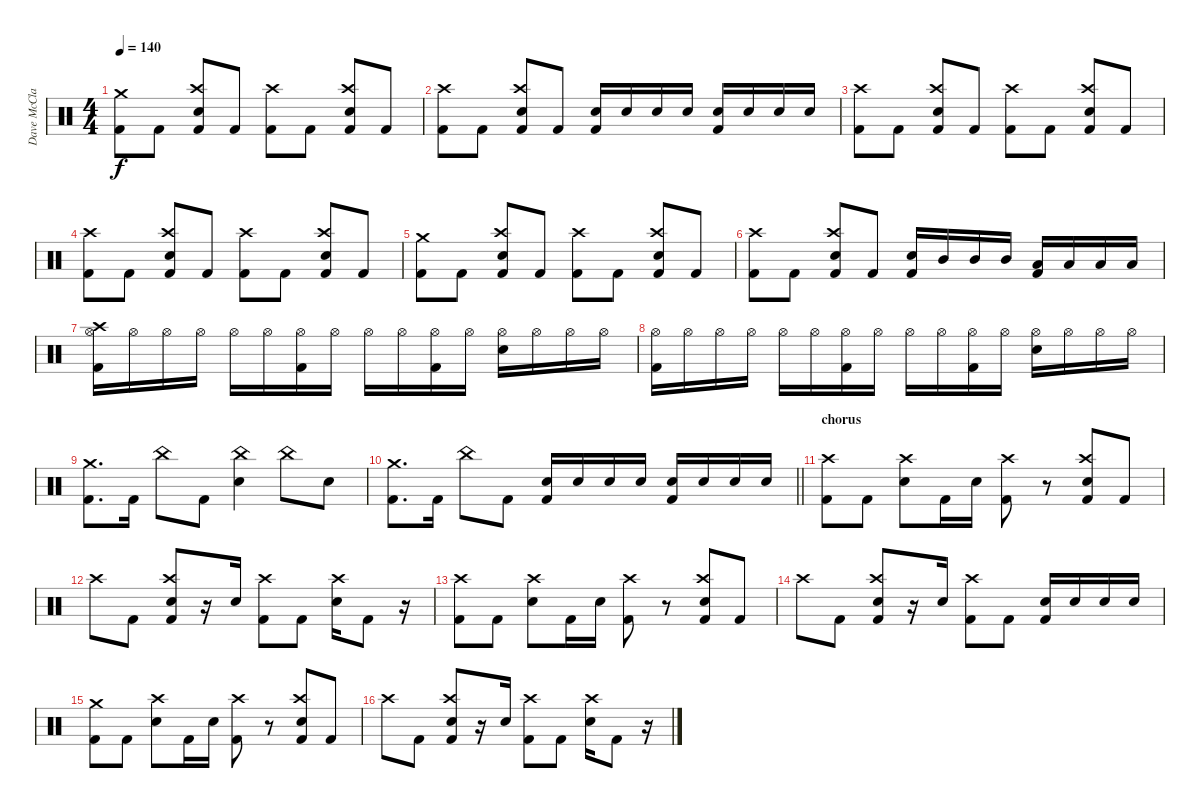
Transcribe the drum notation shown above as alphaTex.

\track ("Dave McClain" "Dave McCla") {solo instrument percussion}
\staff {score}
\articulation defaults
\ts (4 4)
\tempo 140
\clef neutral
\ks c
("Crash medium (hit)" "Kick (hit) 2").8{dy f} "Kick (hit) 2".8 ("Crash high (hit)" "Electric Snare (hit)" "Kick (hit) 2").8 "Kick (hit) 2".8 ("Crash high (hit)" "Kick (hit) 2").8 "Kick (hit) 2".8 ("Crash high (hit)" "Electric Snare (hit)" "Kick (hit) 2").8 "Kick (hit) 2".8 |
("Crash high (hit)" "Kick (hit) 2").8 "Kick (hit) 2".8 ("Crash high (hit)" "Electric Snare (hit)" "Kick (hit) 2").8 "Kick (hit) 2".8 ("Electric Snare (hit)" "Kick (hit) 2").16 "Electric Snare (hit)".16 "Electric Snare (hit)".16 "Electric Snare (hit)".16 ("Electric Snare (hit)" "Kick (hit) 2").16 "Electric Snare (hit)".16 "Electric Snare (hit)".16 "Electric Snare (hit)".16 |
("Crash high (hit)" "Kick (hit) 2").8 "Kick (hit) 2".8 ("Crash high (hit)" "Electric Snare (hit)" "Kick (hit) 2").8 "Kick (hit) 2".8 ("Crash high (hit)" "Kick (hit) 2").8 "Kick (hit) 2".8 ("Crash high (hit)" "Electric Snare (hit)" "Kick (hit) 2").8 "Kick (hit) 2".8 |
("Crash high (hit)" "Kick (hit) 2").8 "Kick (hit) 2".8 ("Crash high (hit)" "Electric Snare (hit)" "Kick (hit) 2").8 "Kick (hit) 2".8 ("Crash high (hit)" "Kick (hit) 2").8 "Kick (hit) 2".8 ("Crash high (hit)" "Electric Snare (hit)" "Kick (hit) 2").8 "Kick (hit) 2".8 |
("Crash medium (hit)" "Kick (hit) 2").8 "Kick (hit) 2".8 ("Crash high (hit)" "Electric Snare (hit)" "Kick (hit) 2").8 "Kick (hit) 2".8 ("Crash high (hit)" "Kick (hit) 2").8 "Kick (hit) 2".8 ("Crash high (hit)" "Electric Snare (hit)" "Kick (hit) 2").8 "Kick (hit) 2".8 |
("Crash high (hit)" "Kick (hit) 2").8 "Kick (hit) 2".8 ("Crash high (hit)" "Electric Snare (hit)" "Kick (hit) 2").8 "Kick (hit) 2".8 ("Electric Snare (hit)" "Kick (hit) 2").16 "Mid Tom (hit)".16 "Mid Tom (hit)".16 "Mid Tom (hit)".16 ("Low Tom (hit)" "Kick (hit) 2").16 "Low Tom (hit)".16 "Low Floor Tom (hit)".16 "Low Floor Tom (hit)".16 |
("Crash high (hit)" "Hi-Hat (open)" "Kick (hit) 2").16 "Hi-Hat (open)".16 "Hi-Hat (open)".16 "Hi-Hat (open)".16 "Hi-Hat (open)".16 "Hi-Hat (open)".16 ("Hi-Hat (open)" "Kick (hit) 2").16 "Hi-Hat (open)".16 "Hi-Hat (open)".16 "Hi-Hat (open)".16 ("Hi-Hat (open)" "Kick (hit) 2").16 "Hi-Hat (open)".16 ("Hi-Hat (open)" "Electric Snare (hit)").16 "Hi-Hat (open)".16 "Hi-Hat (open)".16 "Hi-Hat (open)".16 |
("Hi-Hat (open)" "Kick (hit) 2").16 "Hi-Hat (open)".16 "Hi-Hat (open)".16 "Hi-Hat (open)".16 "Hi-Hat (open)".16 "Hi-Hat (open)".16 ("Hi-Hat (open)" "Kick (hit) 2").16 "Hi-Hat (open)".16 "Hi-Hat (open)".16 "Hi-Hat (open)".16 ("Hi-Hat (open)" "Kick (hit) 2").16 "Hi-Hat (open)".16 ("Hi-Hat (open)" "Electric Snare (hit)").16 "Hi-Hat (open)".16 "Hi-Hat (open)".16 "Hi-Hat (open)".16 |
("Crash medium (hit)" "Kick (hit) 2").8{d} "Kick (hit) 2".16 "China (hit)".8 "Kick (hit) 2".8 ("China (hit)" "Electric Snare (hit)").4 "China (hit)".8 "Electric Snare (hit)".8 |
\barLineRight lightlight
("Crash medium (hit)" "Kick (hit) 2").8{d} "Kick (hit) 2".16 "China (hit)".8 "Kick (hit) 2".8 ("Electric Snare (hit)" "Kick (hit) 2").16 "Electric Snare (hit)".16 "Electric Snare (hit)".16 "Electric Snare (hit)".16 ("Electric Snare (hit)" "Kick (hit) 2").16 "Electric Snare (hit)".16 "Electric Snare (hit)".16 "Electric Snare (hit)".16 |
\section ("" "chorus")
("Crash high (hit)" "Kick (hit) 2").8 "Kick (hit) 2".8 ("Crash high (hit)" "Electric Snare (hit)").8 "Kick (hit) 2".16 "Electric Snare (hit)".16 ("Crash high (hit)" "Kick (hit) 2").8 r.8 ("Crash high (hit)" "Electric Snare (hit)" "Kick (hit) 2").8 "Kick (hit) 2".8 |
"Crash high (hit)".8 "Kick (hit) 2".8 ("Crash high (hit)" "Electric Snare (hit)" "Kick (hit) 2").8 r.16 "Electric Snare (hit)".16 ("Crash high (hit)" "Kick (hit) 2").8 "Kick (hit) 2".8 ("Crash high (hit)" "Electric Snare (hit)").16 "Kick (hit) 2".8 r.16 |
("Crash high (hit)" "Kick (hit) 2").8 "Kick (hit) 2".8 ("Crash high (hit)" "Electric Snare (hit)").8 "Kick (hit) 2".16 "Electric Snare (hit)".16 ("Crash high (hit)" "Kick (hit) 2").8 r.8 ("Crash high (hit)" "Electric Snare (hit)" "Kick (hit) 2").8 "Kick (hit) 2".8 |
"Crash high (hit)".8 "Kick (hit) 2".8 ("Crash high (hit)" "Electric Snare (hit)" "Kick (hit) 2").8 r.16 "Electric Snare (hit)".16 ("Crash high (hit)" "Kick (hit) 2").8 "Kick (hit) 2".8 ("Electric Snare (hit)" "Kick (hit) 2").16 "Electric Snare (hit)".16 "Electric Snare (hit)".16 "Electric Snare (hit)".16 |
("Crash medium (hit)" "Kick (hit) 2").8 "Kick (hit) 2".8 ("Crash high (hit)" "Electric Snare (hit)").8 "Kick (hit) 2".16 "Electric Snare (hit)".16 ("Crash high (hit)" "Kick (hit) 2").8 r.8 ("Crash high (hit)" "Electric Snare (hit)" "Kick (hit) 2").8 "Kick (hit) 2".8 |
"Crash high (hit)".8 "Kick (hit) 2".8 ("Crash high (hit)" "Electric Snare (hit)" "Kick (hit) 2").8 r.16 "Electric Snare (hit)".16 ("Crash high (hit)" "Kick (hit) 2").8 "Kick (hit) 2".8 ("Crash high (hit)" "Electric Snare (hit)").16 "Kick (hit) 2".8 r.16
